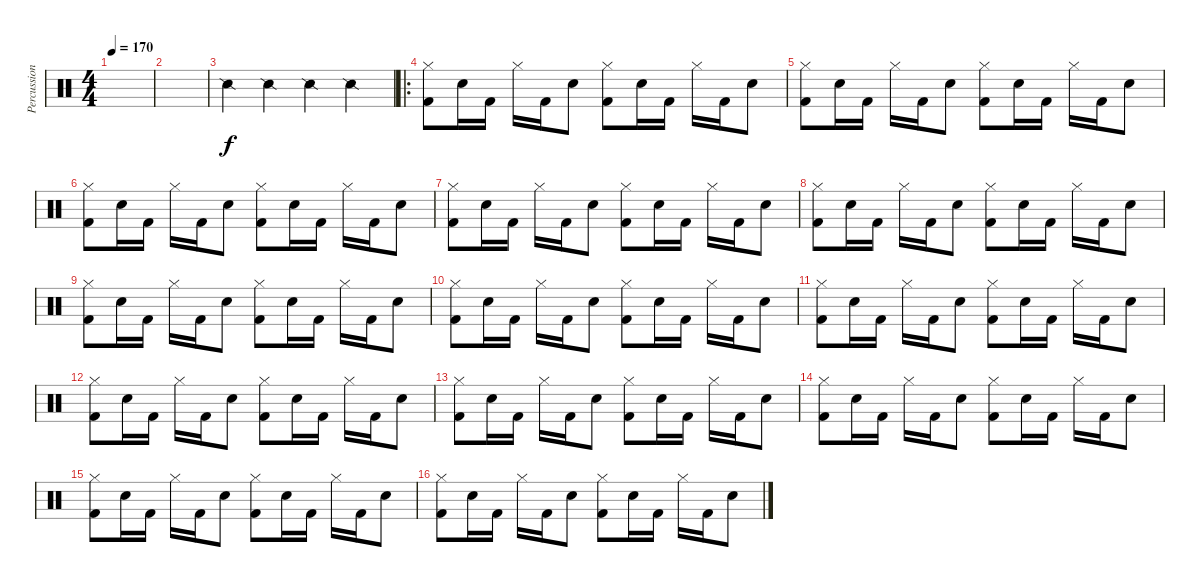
\track ("Percussions" "Percussion") {instrument percussion}
\staff {score}
\articulation defaults
\ts (4 4)
\tempo 170
\clef neutral
\ks c
|
|
"Snare (side stick) 2".4 "Snare (side stick) 2".4 "Snare (side stick) 2".4 "Snare (side stick) 2".4 |
\ro
("Hi-Hat (closed)" "Kick (hit) 2").8 "Snare (hit) 2".16 "Kick (hit) 2".16 "Hi-Hat (closed)".16 "Kick (hit) 2".16 "Snare (hit) 2".8 ("Hi-Hat (closed)" "Kick (hit) 2").8 "Snare (hit) 2".16 "Kick (hit) 2".16 "Hi-Hat (closed)".16 "Kick (hit) 2".16 "Snare (hit) 2".8 |
("Hi-Hat (closed)" "Kick (hit) 2").8 "Snare (hit) 2".16 "Kick (hit) 2".16 "Hi-Hat (closed)".16 "Kick (hit) 2".16 "Snare (hit) 2".8 ("Hi-Hat (closed)" "Kick (hit) 2").8 "Snare (hit) 2".16 "Kick (hit) 2".16 "Hi-Hat (closed)".16 "Kick (hit) 2".16 "Snare (hit) 2".8 |
("Hi-Hat (closed)" "Kick (hit) 2").8 "Snare (hit) 2".16 "Kick (hit) 2".16 "Hi-Hat (closed)".16 "Kick (hit) 2".16 "Snare (hit) 2".8 ("Hi-Hat (closed)" "Kick (hit) 2").8 "Snare (hit) 2".16 "Kick (hit) 2".16 "Hi-Hat (closed)".16 "Kick (hit) 2".16 "Snare (hit) 2".8 |
("Hi-Hat (closed)" "Kick (hit) 2").8 "Snare (hit) 2".16 "Kick (hit) 2".16 "Hi-Hat (closed)".16 "Kick (hit) 2".16 "Snare (hit) 2".8 ("Hi-Hat (closed)" "Kick (hit) 2").8 "Snare (hit) 2".16 "Kick (hit) 2".16 "Hi-Hat (closed)".16 "Kick (hit) 2".16 "Snare (hit) 2".8 |
("Hi-Hat (closed)" "Kick (hit) 2").8 "Snare (hit) 2".16 "Kick (hit) 2".16 "Hi-Hat (closed)".16 "Kick (hit) 2".16 "Snare (hit) 2".8 ("Hi-Hat (closed)" "Kick (hit) 2").8 "Snare (hit) 2".16 "Kick (hit) 2".16 "Hi-Hat (closed)".16 "Kick (hit) 2".16 "Snare (hit) 2".8 |
("Hi-Hat (closed)" "Kick (hit) 2").8 "Snare (hit) 2".16 "Kick (hit) 2".16 "Hi-Hat (closed)".16 "Kick (hit) 2".16 "Snare (hit) 2".8 ("Hi-Hat (closed)" "Kick (hit) 2").8 "Snare (hit) 2".16 "Kick (hit) 2".16 "Hi-Hat (closed)".16 "Kick (hit) 2".16 "Snare (hit) 2".8 |
("Hi-Hat (closed)" "Kick (hit) 2").8 "Snare (hit) 2".16 "Kick (hit) 2".16 "Hi-Hat (closed)".16 "Kick (hit) 2".16 "Snare (hit) 2".8 ("Hi-Hat (closed)" "Kick (hit) 2").8 "Snare (hit) 2".16 "Kick (hit) 2".16 "Hi-Hat (closed)".16 "Kick (hit) 2".16 "Snare (hit) 2".8 |
("Hi-Hat (closed)" "Kick (hit) 2").8 "Snare (hit) 2".16 "Kick (hit) 2".16 "Hi-Hat (closed)".16 "Kick (hit) 2".16 "Snare (hit) 2".8 ("Hi-Hat (closed)" "Kick (hit) 2").8 "Snare (hit) 2".16 "Kick (hit) 2".16 "Hi-Hat (closed)".16 "Kick (hit) 2".16 "Snare (hit) 2".8 |
("Hi-Hat (closed)" "Kick (hit) 2").8 "Snare (hit) 2".16 "Kick (hit) 2".16 "Hi-Hat (closed)".16 "Kick (hit) 2".16 "Snare (hit) 2".8 ("Hi-Hat (closed)" "Kick (hit) 2").8 "Snare (hit) 2".16 "Kick (hit) 2".16 "Hi-Hat (closed)".16 "Kick (hit) 2".16 "Snare (hit) 2".8 |
("Hi-Hat (closed)" "Kick (hit) 2").8 "Snare (hit) 2".16 "Kick (hit) 2".16 "Hi-Hat (closed)".16 "Kick (hit) 2".16 "Snare (hit) 2".8 ("Hi-Hat (closed)" "Kick (hit) 2").8 "Snare (hit) 2".16 "Kick (hit) 2".16 "Hi-Hat (closed)".16 "Kick (hit) 2".16 "Snare (hit) 2".8 |
("Hi-Hat (closed)" "Kick (hit) 2").8 "Snare (hit) 2".16 "Kick (hit) 2".16 "Hi-Hat (closed)".16 "Kick (hit) 2".16 "Snare (hit) 2".8 ("Hi-Hat (closed)" "Kick (hit) 2").8 "Snare (hit) 2".16 "Kick (hit) 2".16 "Hi-Hat (closed)".16 "Kick (hit) 2".16 "Snare (hit) 2".8 |
("Hi-Hat (closed)" "Kick (hit) 2").8 "Snare (hit) 2".16 "Kick (hit) 2".16 "Hi-Hat (closed)".16 "Kick (hit) 2".16 "Snare (hit) 2".8 ("Hi-Hat (closed)" "Kick (hit) 2").8 "Snare (hit) 2".16 "Kick (hit) 2".16 "Hi-Hat (closed)".16 "Kick (hit) 2".16 "Snare (hit) 2".8 |
("Hi-Hat (closed)" "Kick (hit) 2").8 "Snare (hit) 2".16 "Kick (hit) 2".16 "Hi-Hat (closed)".16 "Kick (hit) 2".16 "Snare (hit) 2".8 ("Hi-Hat (closed)" "Kick (hit) 2").8 "Snare (hit) 2".16 "Kick (hit) 2".16 "Hi-Hat (closed)".16 "Kick (hit) 2".16 "Snare (hit) 2".8
